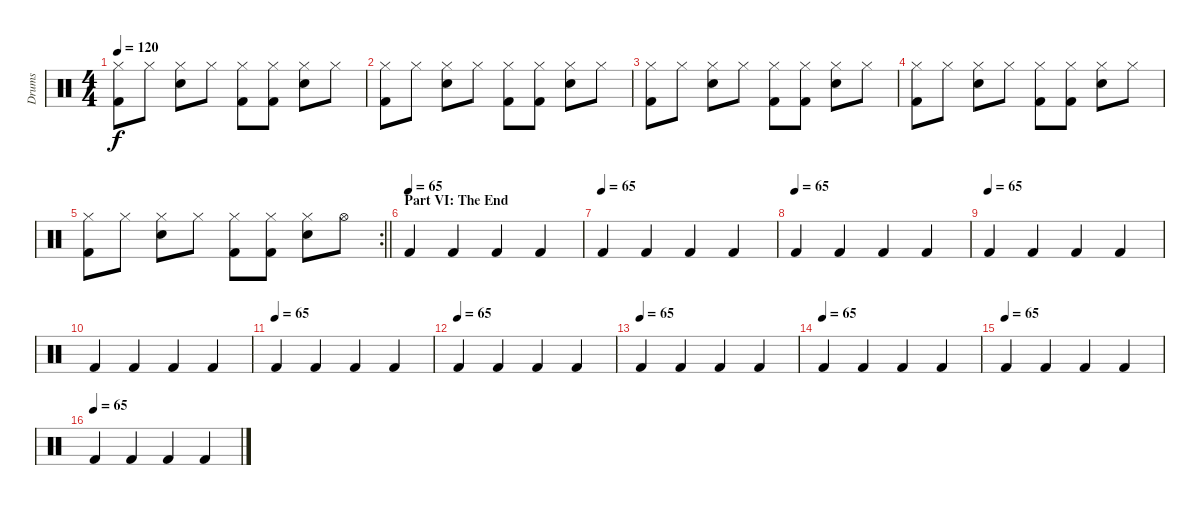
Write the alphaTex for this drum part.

\track ("Drums" "Drums") {instrument percussion}
\staff {score}
\articulation defaults
\ts (4 4)
\tempo 120
\clef neutral
\ks c
("Hi-Hat (closed)" "Kick (hit) 2").8{dy f} "Hi-Hat (closed)".8 ("Hi-Hat (closed)" "Snare (hit) 2").8 "Hi-Hat (closed)".8 ("Hi-Hat (closed)" "Kick (hit) 2").8 ("Hi-Hat (closed)" "Kick (hit) 2").8 ("Hi-Hat (closed)" "Snare (hit) 2").8 "Hi-Hat (closed)".8 |
("Hi-Hat (closed)" "Kick (hit) 2").8 "Hi-Hat (closed)".8 ("Hi-Hat (closed)" "Snare (hit) 2").8 "Hi-Hat (closed)".8 ("Hi-Hat (closed)" "Kick (hit) 2").8 ("Hi-Hat (closed)" "Kick (hit) 2").8 ("Hi-Hat (closed)" "Snare (hit) 2").8 "Hi-Hat (closed)".8 |
("Hi-Hat (closed)" "Kick (hit) 2").8 "Hi-Hat (closed)".8 ("Hi-Hat (closed)" "Snare (hit) 2").8 "Hi-Hat (closed)".8 ("Hi-Hat (closed)" "Kick (hit) 2").8 ("Hi-Hat (closed)" "Kick (hit) 2").8 ("Hi-Hat (closed)" "Snare (hit) 2").8 "Hi-Hat (closed)".8 |
("Hi-Hat (closed)" "Kick (hit) 2").8 "Hi-Hat (closed)".8 ("Hi-Hat (closed)" "Snare (hit) 2").8 "Hi-Hat (closed)".8 ("Hi-Hat (closed)" "Kick (hit) 2").8 ("Hi-Hat (closed)" "Kick (hit) 2").8 ("Hi-Hat (closed)" "Snare (hit) 2").8 "Hi-Hat (closed)".8 |
\rc 2
\barLineRight lightlight
("Hi-Hat (closed)" "Kick (hit) 2").8 "Hi-Hat (closed)".8 ("Hi-Hat (closed)" "Snare (hit) 2").8 "Hi-Hat (closed)".8 ("Hi-Hat (closed)" "Kick (hit) 2").8 ("Hi-Hat (closed)" "Kick (hit) 2").8 ("Hi-Hat (closed)" "Snare (hit) 2").8 "Hi-Hat (open)".8 |
\section ("" "Part VI: The End")
\tempo (65)
"Kick (hit) 2".4 "Kick (hit) 2".4 "Kick (hit) 2".4 "Kick (hit) 2".4 |
\tempo (65)
"Kick (hit) 2".4 "Kick (hit) 2".4 "Kick (hit) 2".4 "Kick (hit) 2".4 |
\tempo (65)
"Kick (hit) 2".4 "Kick (hit) 2".4 "Kick (hit) 2".4 "Kick (hit) 2".4 |
\tempo (65)
"Kick (hit) 2".4 "Kick (hit) 2".4 "Kick (hit) 2".4 "Kick (hit) 2".4 |
"Kick (hit) 2".4 "Kick (hit) 2".4 "Kick (hit) 2".4 "Kick (hit) 2".4 |
\tempo (65)
"Kick (hit) 2".4 "Kick (hit) 2".4 "Kick (hit) 2".4 "Kick (hit) 2".4 |
\tempo (65)
"Kick (hit) 2".4 "Kick (hit) 2".4 "Kick (hit) 2".4 "Kick (hit) 2".4 |
\tempo (65)
"Kick (hit) 2".4 "Kick (hit) 2".4 "Kick (hit) 2".4 "Kick (hit) 2".4 |
\tempo (65)
"Kick (hit) 2".4 "Kick (hit) 2".4 "Kick (hit) 2".4 "Kick (hit) 2".4 |
\tempo (65)
"Kick (hit) 2".4 "Kick (hit) 2".4 "Kick (hit) 2".4 "Kick (hit) 2".4 |
\tempo (65)
"Kick (hit) 2".4 "Kick (hit) 2".4 "Kick (hit) 2".4 "Kick (hit) 2".4
